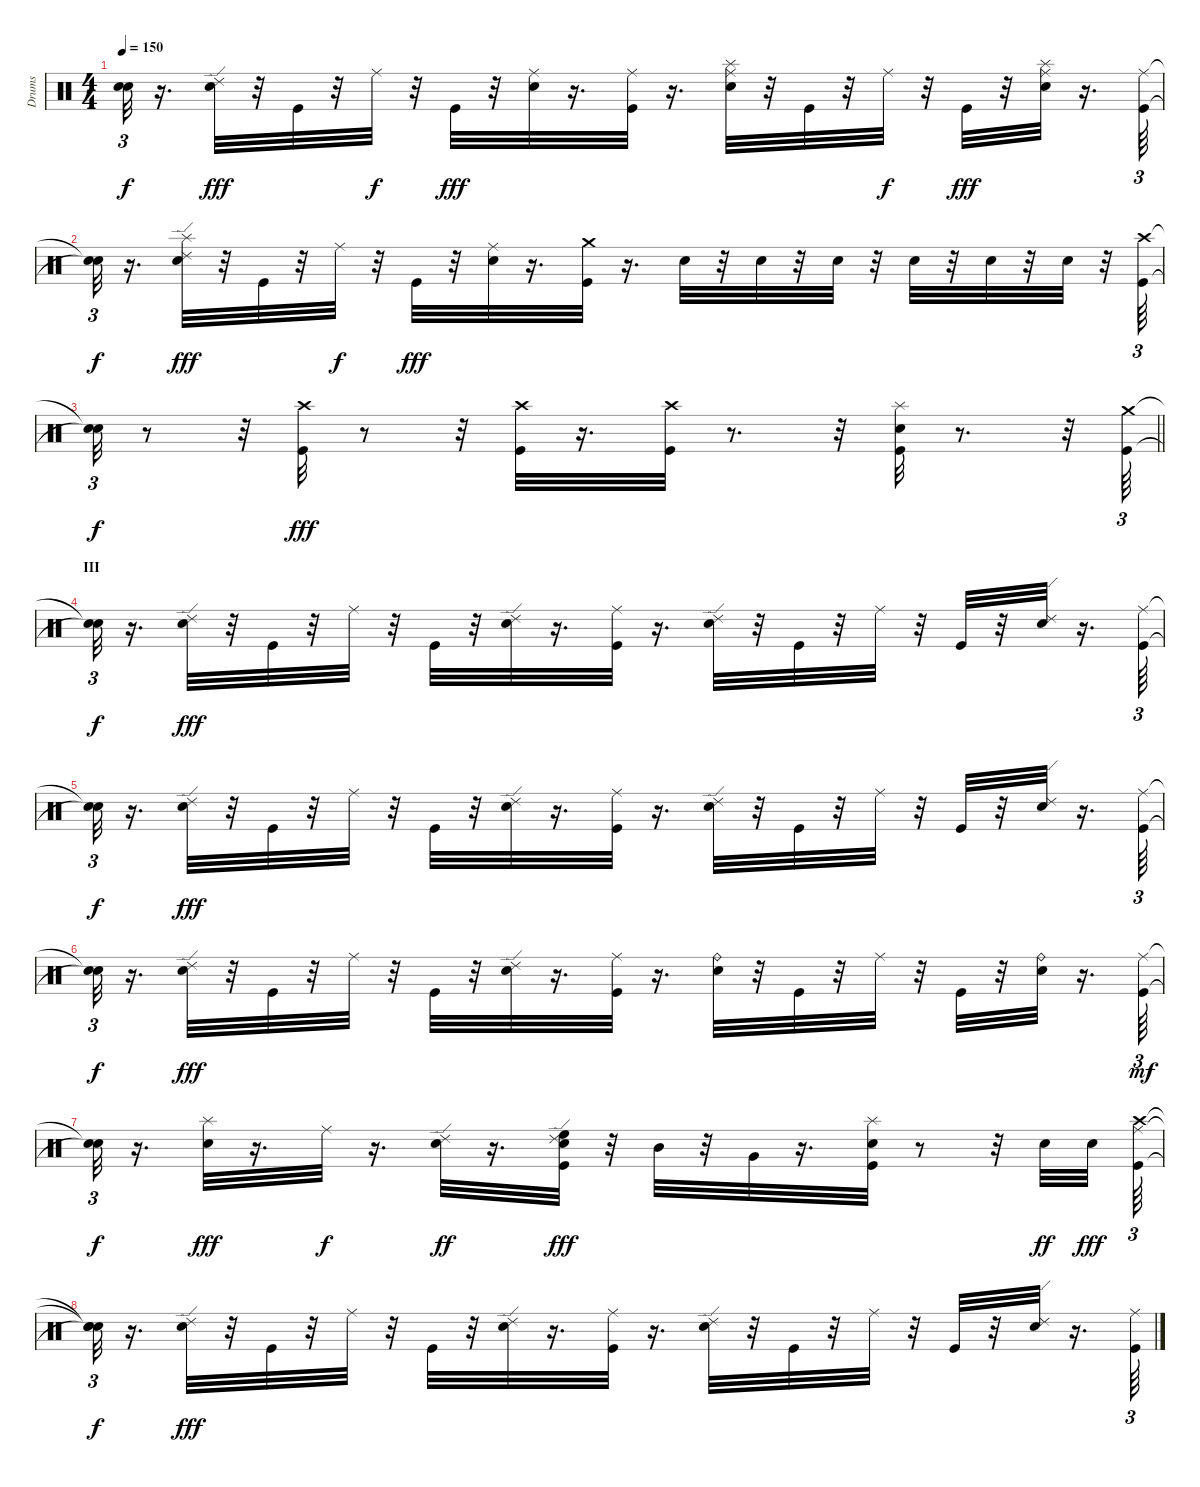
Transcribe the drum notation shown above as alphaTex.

\track ("Drums" "Drums") {instrument percussion}
\staff {score}
\articulation defaults
\ts (4 4)
\tempo 150
\clef neutral
\ks c
("Snare (hit)"{t} "Snare (hit)"{t}).32{tu (3 2) dy f} r.16{d} ("Electric Snare (hit)" "Ride (edge) 2").32{dy fff} r.32 "Kick (hit)".32 r.32 "Ride (middle)".32{dy f} r.32 "Kick (hit)".32{dy fff} r.32 ("Electric Snare (hit)" "Ride (middle)").32 r.16{d} ("Kick (hit)" "Ride (middle)").32 r.16{d} ("Electric Snare (hit)" "Ride (middle)" "Splash (hit)").32 r.32 "Kick (hit)".32 r.32 "Ride (middle)".32{dy f} r.32 "Kick (hit)".32{dy fff} r.32 ("Electric Snare (hit)" "Ride (middle)" "Splash (hit)").32 r.16{d} ("Kick (hit)" "Ride (middle)").64{tu (3 2)} |
("Snare (hit)"{t} "Snare (hit)"{t}).32{tu (3 2) dy f} r.16{d} ("Splash (hit)" "Electric Snare (hit)" "Ride (edge) 2").32{dy fff} r.32 "Kick (hit)".32 r.32 "Ride (middle)".32{dy f} r.32 "Kick (hit)".32{dy fff} r.32 ("Electric Snare (hit)" "Ride (middle)").32 r.16{d} ("Crash medium (hit)" "Kick (hit)").32 r.16{d} "Electric Snare (hit)".32 r.32 "Electric Snare (hit)".32 r.32 "Electric Snare (hit)".32 r.32 "Electric Snare (hit)".32 r.32 "Electric Snare (hit)".32 r.32 "Electric Snare (hit)".32 r.32 ("Crash high (hit)" "Kick (hit)").64{tu (3 2)} |
\barLineRight lightlight
("Snare (hit)"{t} "Snare (hit)"{t}).32{tu (3 2) dy f} r.8 r.32 ("Crash high (hit)" "Kick (hit)").32{dy fff} r.8 r.32 ("Crash high (hit)" "Kick (hit)").32 r.16{d} ("Crash high (hit)" "Kick (hit)").32 r.8{d} r.32 ("Kick (hit)" "Electric Snare (hit)" "Splash (hit)").32 r.8{d} r.32 ("Crash medium (hit)" "Kick (hit)").64{tu (3 2)} |
\section ("" "III")
("Snare (hit)"{t} "Snare (hit)"{t}).32{tu (3 2) dy f} r.16{d} ("Electric Snare (hit)" "Ride (edge) 2").32{dy fff} r.32 "Kick (hit)".32 r.32 "Ride (middle)".32 r.32 "Kick (hit)".32 r.32 ("Electric Snare (hit)" "Ride (edge) 2").32 r.16{d} ("Ride (middle)" "Kick (hit)").32 r.16{d} ("Electric Snare (hit)" "Ride (edge) 2").32 r.32 "Kick (hit)".32 r.32 "Ride (middle)".32 r.32 "Kick (hit)".32 r.32 ("Electric Snare (hit)" "Ride (edge) 2").32 r.16{d} ("Kick (hit)" "Ride (middle)").64{tu (3 2)} |
("Snare (hit)"{t} "Snare (hit)"{t}).32{tu (3 2) dy f} r.16{d} ("Electric Snare (hit)" "Ride (edge) 2").32{dy fff} r.32 "Kick (hit)".32 r.32 "Ride (middle)".32 r.32 "Kick (hit)".32 r.32 ("Electric Snare (hit)" "Ride (edge) 2").32 r.16{d} ("Kick (hit)" "Ride (middle)").32 r.16{d} ("Electric Snare (hit)" "Ride (edge) 2").32 r.32 "Kick (hit)".32 r.32 "Ride (middle)".32 r.32 "Kick (hit)".32 r.32 ("Electric Snare (hit)" "Ride (edge) 2").32 r.16{d} ("Kick (hit)" "Ride (middle)").64{tu (3 2)} |
("Snare (hit)"{t} "Snare (hit)"{t}).32{tu (3 2) dy f} r.16{d} ("Electric Snare (hit)" "Ride (edge) 2").32{dy fff} r.32 "Kick (hit)".32 r.32 "Ride (middle)".32 r.32 "Kick (hit)".32 r.32 ("Electric Snare (hit)" "Ride (edge) 2").32 r.16{d} ("Kick (hit)" "Ride (middle)").32 r.16{d} ("Electric Snare (hit)" "Ride (bell)").32 r.32 "Kick (hit)".32 r.32 "Ride (middle)".32 r.32 "Kick (hit)".32 r.32 ("Electric Snare (hit)" "Ride (bell)").32 r.16{d} ("Kick (hit)" "Ride (middle)").64{tu (3 2) dy mf} |
("Snare (hit)"{t} "Snare (hit)"{t}).32{tu (3 2) dy f} r.16{d} ("Electric Snare (hit)" "Splash (hit)").32{dy fff} r.16{d} "Ride (middle)".32{dy f} r.16{d} ("Electric Snare (hit)" "Ride (edge) 2").32{dy ff} r.16{d} ("Electric Snare (hit)" "Kick (hit)" "Ride (edge) 2" "High Floor Tom (hit)").32{dy fff} r.32 "Mid Tom (hit)".32 r.32 "Very Low Tom (hit)".32 r.16{d} ("Electric Snare (hit)" "Kick (hit)" "Splash (hit)").32 r.8 r.32 "Electric Snare (hit)".32{dy ff} "Electric Snare (hit)".32{dy fff beam splitsecondary} ("Ride (middle)" "Kick (hit)" "Crash high (hit)").64{tu (3 2)} |
("Snare (hit)"{t} "Snare (hit)"{t} "Snare (hit)"{t}).32{tu (3 2) dy f} r.16{d} ("Electric Snare (hit)" "Ride (edge) 2").32{dy fff} r.32 "Kick (hit)".32 r.32 "Ride (middle)".32 r.32 "Kick (hit)".32 r.32 ("Electric Snare (hit)" "Ride (edge) 2").32 r.16{d} ("Kick (hit)" "Ride (middle)").32 r.16{d} ("Electric Snare (hit)" "Ride (edge) 2").32 r.32 "Kick (hit)".32 r.32 "Ride (middle)".32 r.32 "Kick (hit)".32 r.32 ("Electric Snare (hit)" "Ride (edge) 2").32 r.16{d} ("Ride (middle)" "Kick (hit)").64{tu (3 2)}
